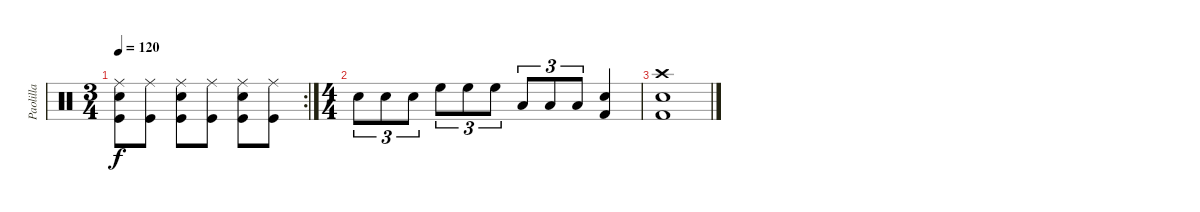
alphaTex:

\track ("Paolilla" "Paolilla") {instrument percussion}
\staff {score}
\articulation defaults
\rc 2
\ts (3 4)
\tempo 120
\clef neutral
\ks c
("Ride (middle)" "Snare (hit) 2" "Kick (hit)").8{dy f} ("Ride (middle)" "Kick (hit)").8 ("Ride (middle)" "Snare (hit) 2" "Kick (hit)").8 ("Ride (middle)" "Kick (hit)").8 ("Ride (middle)" "Snare (hit) 2" "Kick (hit)").8 ("Ride (middle)" "Kick (hit)").8 |
\ts (4 4)
"Snare (hit) 2".8{tu (3 2)} "Snare (hit) 2".8{tu (3 2)} "Snare (hit) 2".8{tu (3 2)} "High Floor Tom (hit)".8{tu (3 2)} "High Floor Tom (hit)".8{tu (3 2)} "High Floor Tom (hit)".8{tu (3 2)} "Low Tom (hit)".8{tu (3 2)} "Low Tom (hit)".8{tu (3 2)} "Low Tom (hit)".8{tu (3 2)} ("Snare (hit) 2" "Kick (hit) 2").4 |
("Crash high (hit)" "Kick (hit) 2" "Snare (hit) 2").1
